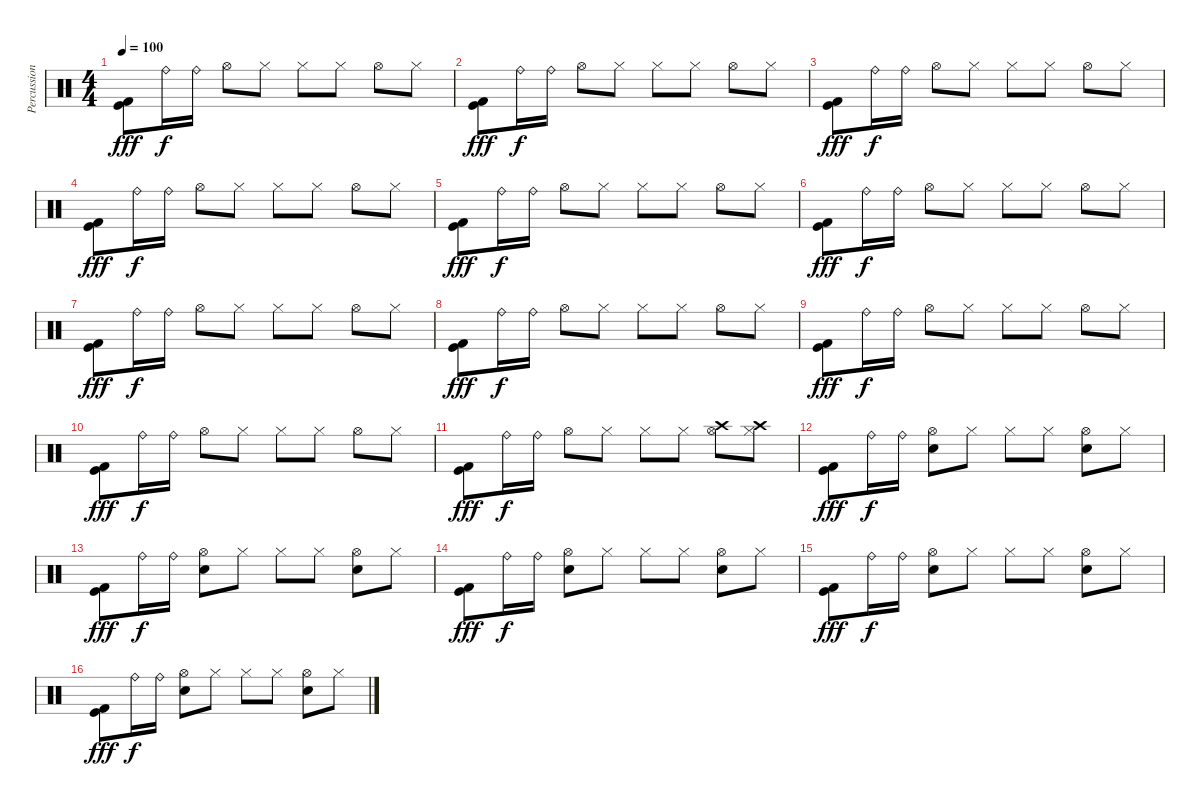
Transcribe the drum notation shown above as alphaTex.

\track ("Percussion" "Percussion") {instrument percussion}
\staff {score}
\articulation defaults
\ts (4 4)
\tempo 100
\clef neutral
\ks c
("Kick (hit) 2" "Kick (hit)").8{dy fff} "Ride (bell)".16{dy f} "Ride (bell)".16 "Hi-Hat (open)".8 "Hi-Hat (closed)".8 "Hi-Hat (closed)".8 "Hi-Hat (closed)".8 "Hi-Hat (open)".8 "Hi-Hat (closed)".8 |
("Kick (hit) 2" "Kick (hit)").8{dy fff} "Ride (bell)".16{dy f} "Ride (bell)".16 "Hi-Hat (open)".8 "Hi-Hat (closed)".8 "Hi-Hat (closed)".8 "Hi-Hat (closed)".8 "Hi-Hat (open)".8 "Hi-Hat (closed)".8 |
("Kick (hit) 2" "Kick (hit)").8{dy fff} "Ride (bell)".16{dy f} "Ride (bell)".16 "Hi-Hat (open)".8 "Hi-Hat (closed)".8 "Hi-Hat (closed)".8 "Hi-Hat (closed)".8 "Hi-Hat (open)".8 "Hi-Hat (closed)".8 |
("Kick (hit) 2" "Kick (hit)").8{dy fff} "Ride (bell)".16{dy f} "Ride (bell)".16 "Hi-Hat (open)".8 "Hi-Hat (closed)".8 "Hi-Hat (closed)".8 "Hi-Hat (closed)".8 "Hi-Hat (open)".8 "Hi-Hat (closed)".8 |
("Kick (hit) 2" "Kick (hit)").8{dy fff} "Ride (bell)".16{dy f} "Ride (bell)".16 "Hi-Hat (open)".8 "Hi-Hat (closed)".8 "Hi-Hat (closed)".8 "Hi-Hat (closed)".8 "Hi-Hat (open)".8 "Hi-Hat (closed)".8 |
("Kick (hit) 2" "Kick (hit)").8{dy fff} "Ride (bell)".16{dy f} "Ride (bell)".16 "Hi-Hat (open)".8 "Hi-Hat (closed)".8 "Hi-Hat (closed)".8 "Hi-Hat (closed)".8 "Hi-Hat (open)".8 "Hi-Hat (closed)".8 |
("Kick (hit) 2" "Kick (hit)").8{dy fff} "Ride (bell)".16{dy f} "Ride (bell)".16 "Hi-Hat (open)".8 "Hi-Hat (closed)".8 "Hi-Hat (closed)".8 "Hi-Hat (closed)".8 "Hi-Hat (open)".8 "Hi-Hat (closed)".8 |
("Kick (hit) 2" "Kick (hit)").8{dy fff} "Ride (bell)".16{dy f} "Ride (bell)".16 "Hi-Hat (open)".8 "Hi-Hat (closed)".8 "Hi-Hat (closed)".8 "Hi-Hat (closed)".8 "Hi-Hat (open)".8 "Hi-Hat (closed)".8 |
("Kick (hit) 2" "Kick (hit)").8{dy fff} "Ride (bell)".16{dy f} "Ride (bell)".16 "Hi-Hat (open)".8 "Hi-Hat (closed)".8 "Hi-Hat (closed)".8 "Hi-Hat (closed)".8 "Hi-Hat (open)".8 "Hi-Hat (closed)".8 |
("Kick (hit) 2" "Kick (hit)").8{dy fff} "Ride (bell)".16{dy f} "Ride (bell)".16 "Hi-Hat (open)".8 "Hi-Hat (closed)".8 "Hi-Hat (closed)".8 "Hi-Hat (closed)".8 "Hi-Hat (open)".8 "Hi-Hat (closed)".8 |
("Kick (hit) 2" "Kick (hit)").8{dy fff} "Ride (bell)".16{dy f} "Ride (bell)".16 "Hi-Hat (open)".8 "Hi-Hat (closed)".8 "Hi-Hat (closed)".8 "Hi-Hat (closed)".8 ("Crash high (hit)" "Hi-Hat (open)").8 ("Crash high (hit)" "Hi-Hat (closed)").8 |
("Kick (hit) 2" "Kick (hit)").8{dy fff} "Ride (bell)".16{dy f} "Ride (bell)".16 ("Snare (hit) 2" "Hi-Hat (open)").8 "Hi-Hat (closed)".8 "Hi-Hat (closed)".8 "Hi-Hat (closed)".8 ("Snare (hit) 2" "Hi-Hat (open)").8 "Hi-Hat (closed)".8 |
("Kick (hit) 2" "Kick (hit)").8{dy fff} "Ride (bell)".16{dy f} "Ride (bell)".16 ("Snare (hit) 2" "Hi-Hat (open)").8 "Hi-Hat (closed)".8 "Hi-Hat (closed)".8 "Hi-Hat (closed)".8 ("Snare (hit) 2" "Hi-Hat (open)").8 "Hi-Hat (closed)".8 |
("Kick (hit) 2" "Kick (hit)").8{dy fff} "Ride (bell)".16{dy f} "Ride (bell)".16 ("Snare (hit) 2" "Hi-Hat (open)").8 "Hi-Hat (closed)".8 "Hi-Hat (closed)".8 "Hi-Hat (closed)".8 ("Snare (hit) 2" "Hi-Hat (open)").8 "Hi-Hat (closed)".8 |
("Kick (hit) 2" "Kick (hit)").8{dy fff} "Ride (bell)".16{dy f} "Ride (bell)".16 ("Snare (hit) 2" "Hi-Hat (open)").8 "Hi-Hat (closed)".8 "Hi-Hat (closed)".8 "Hi-Hat (closed)".8 ("Snare (hit) 2" "Hi-Hat (open)").8 "Hi-Hat (closed)".8 |
("Kick (hit) 2" "Kick (hit)").8{dy fff} "Ride (bell)".16{dy f} "Ride (bell)".16 ("Snare (hit) 2" "Hi-Hat (open)").8 "Hi-Hat (closed)".8 "Hi-Hat (closed)".8 "Hi-Hat (closed)".8 ("Snare (hit) 2" "Hi-Hat (open)").8 "Hi-Hat (closed)".8
